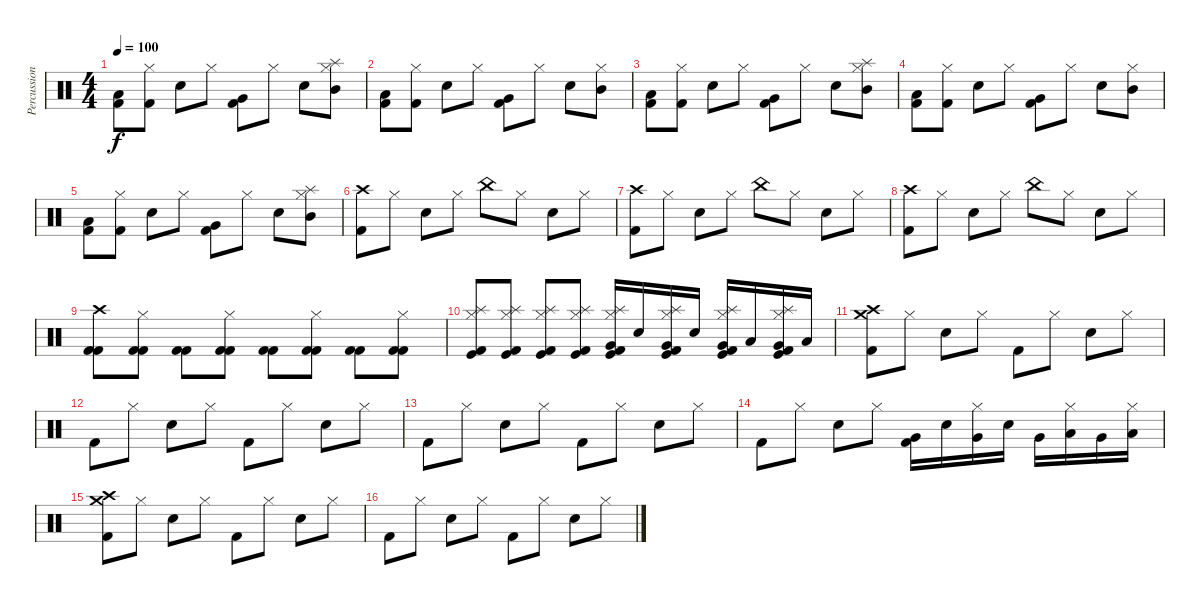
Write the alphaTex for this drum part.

\track ("Percussion" "Percussion") {instrument percussion}
\staff {score}
\articulation defaults
\ts (4 4)
\tempo 100
\clef neutral
\ks c
("Kick (hit) 2" "Low Tom (hit)").8{dy f} ("Kick (hit) 2" "Hi-Hat (closed)").8 "Electric Snare (hit)".8 "Hi-Hat (closed)".8 ("Kick (hit) 2" "Very Low Tom (hit)").8 "Hi-Hat (closed)".8 "Electric Snare (hit)".8 ("Mid Tom (hit)" "Hi-Hat (closed)" "Splash (hit)").8 |
("Kick (hit) 2" "Low Tom (hit)").8 ("Kick (hit) 2" "Hi-Hat (closed)").8 "Electric Snare (hit)".8 "Hi-Hat (closed)".8 ("Kick (hit) 2" "Very Low Tom (hit)").8 "Hi-Hat (closed)".8 "Electric Snare (hit)".8 ("Mid Tom (hit)" "Hi-Hat (closed)").8 |
("Kick (hit) 2" "Low Tom (hit)").8 ("Kick (hit) 2" "Hi-Hat (closed)").8 "Electric Snare (hit)".8 "Hi-Hat (closed)".8 ("Kick (hit) 2" "Very Low Tom (hit)").8 "Hi-Hat (closed)".8 "Electric Snare (hit)".8 ("Mid Tom (hit)" "Hi-Hat (closed)" "Splash (hit)").8 |
("Kick (hit) 2" "Low Tom (hit)").8 ("Kick (hit) 2" "Hi-Hat (closed)").8 "Electric Snare (hit)".8 "Hi-Hat (closed)".8 ("Kick (hit) 2" "Very Low Tom (hit)").8 "Hi-Hat (closed)".8 "Electric Snare (hit)".8 ("Mid Tom (hit)" "Hi-Hat (closed)").8 |
("Kick (hit) 2" "Low Tom (hit)").8 ("Kick (hit) 2" "Hi-Hat (closed)").8 "Electric Snare (hit)".8 "Hi-Hat (closed)".8 ("Kick (hit) 2" "Very Low Tom (hit)").8 "Hi-Hat (closed)".8 "Electric Snare (hit)".8 ("Mid Tom (hit)" "Hi-Hat (closed)" "Splash (hit)").8 |
("Kick (hit) 2" "Crash high (hit)").8 "Hi-Hat (closed)".8 "Electric Snare (hit)".8 "Hi-Hat (closed)".8 "China (hit)".8 "Hi-Hat (closed)".8 "Electric Snare (hit)".8 "Hi-Hat (closed)".8 |
("Kick (hit) 2" "Crash high (hit)").8 "Hi-Hat (closed)".8 "Electric Snare (hit)".8 "Hi-Hat (closed)".8 "China (hit)".8 "Hi-Hat (closed)".8 "Electric Snare (hit)".8 "Hi-Hat (closed)".8 |
("Kick (hit) 2" "Crash high (hit)").8 "Hi-Hat (closed)".8 "Electric Snare (hit)".8 "Hi-Hat (closed)".8 "China (hit)".8 "Hi-Hat (closed)".8 "Electric Snare (hit)".8 "Hi-Hat (closed)".8 |
("Kick (hit) 2" "Kick (hit) 2" "Crash high (hit)").8 ("Kick (hit) 2" "Kick (hit) 2" "Hi-Hat (closed)").8 ("Kick (hit) 2" "Kick (hit) 2").8 ("Kick (hit) 2" "Kick (hit) 2" "Hi-Hat (closed)").8 ("Kick (hit) 2" "Kick (hit) 2").8 ("Kick (hit) 2" "Kick (hit) 2" "Hi-Hat (closed)").8 ("Kick (hit) 2" "Kick (hit) 2").8 ("Kick (hit) 2" "Kick (hit) 2" "Hi-Hat (closed)").8 |
("Kick (hit)" "Kick (hit) 2" "Hi-Hat (closed)" "Splash (hit)").8 ("Kick (hit)" "Kick (hit) 2" "Hi-Hat (closed)" "Splash (hit)").8 ("Kick (hit)" "Kick (hit) 2" "Hi-Hat (closed)" "Splash (hit)").8 ("Kick (hit)" "Kick (hit) 2" "Hi-Hat (closed)" "Splash (hit)").8 ("Kick (hit)" "Kick (hit) 2" "Hi-Hat (closed)" "Splash (hit)" "Very Low Tom (hit)").16 "Electric Snare (hit)".16 ("Kick (hit)" "Kick (hit) 2" "Hi-Hat (closed)" "Splash (hit)" "Very Low Tom (hit)").16 "Electric Snare (hit)".16 ("Kick (hit)" "Kick (hit) 2" "Hi-Hat (closed)" "Splash (hit)" "Very Low Tom (hit)").16 "Low Floor Tom (hit)".16 ("Kick (hit)" "Kick (hit) 2" "Hi-Hat (closed)" "Splash (hit)" "Very Low Tom (hit)").16 "Low Floor Tom (hit)".16 |
("Kick (hit) 2" "Crash high (hit)" "Crash medium (hit)").8 "Hi-Hat (closed)".8 "Electric Snare (hit)".8 "Hi-Hat (closed)".8 "Kick (hit) 2".8 "Hi-Hat (closed)".8 "Electric Snare (hit)".8 "Hi-Hat (closed)".8 |
"Kick (hit) 2".8 "Hi-Hat (closed)".8 "Electric Snare (hit)".8 "Hi-Hat (closed)".8 "Kick (hit) 2".8 "Hi-Hat (closed)".8 "Electric Snare (hit)".8 "Hi-Hat (closed)".8 |
"Kick (hit) 2".8 "Hi-Hat (closed)".8 "Electric Snare (hit)".8 "Hi-Hat (closed)".8 "Kick (hit) 2".8 "Hi-Hat (closed)".8 "Electric Snare (hit)".8 "Hi-Hat (closed)".8 |
"Kick (hit) 2".8 "Hi-Hat (closed)".8 "Electric Snare (hit)".8 "Hi-Hat (closed)".8 ("Kick (hit) 2" "Very Low Tom (hit)").16 "Electric Snare (hit)".16 ("Hi-Hat (closed)" "Very Low Tom (hit)").16 "Electric Snare (hit)".16 "Very Low Tom (hit)".16 ("Hi-Hat (closed)" "Low Floor Tom (hit)").16 "Very Low Tom (hit)".16 ("Hi-Hat (closed)" "Low Floor Tom (hit)").16 |
("Kick (hit) 2" "Crash high (hit)" "Crash medium (hit)").8 "Hi-Hat (closed)".8 "Electric Snare (hit)".8 "Hi-Hat (closed)".8 "Kick (hit) 2".8 "Hi-Hat (closed)".8 "Electric Snare (hit)".8 "Hi-Hat (closed)".8 |
"Kick (hit) 2".8 "Hi-Hat (closed)".8 "Electric Snare (hit)".8 "Hi-Hat (closed)".8 "Kick (hit) 2".8 "Hi-Hat (closed)".8 "Electric Snare (hit)".8 "Hi-Hat (closed)".8
